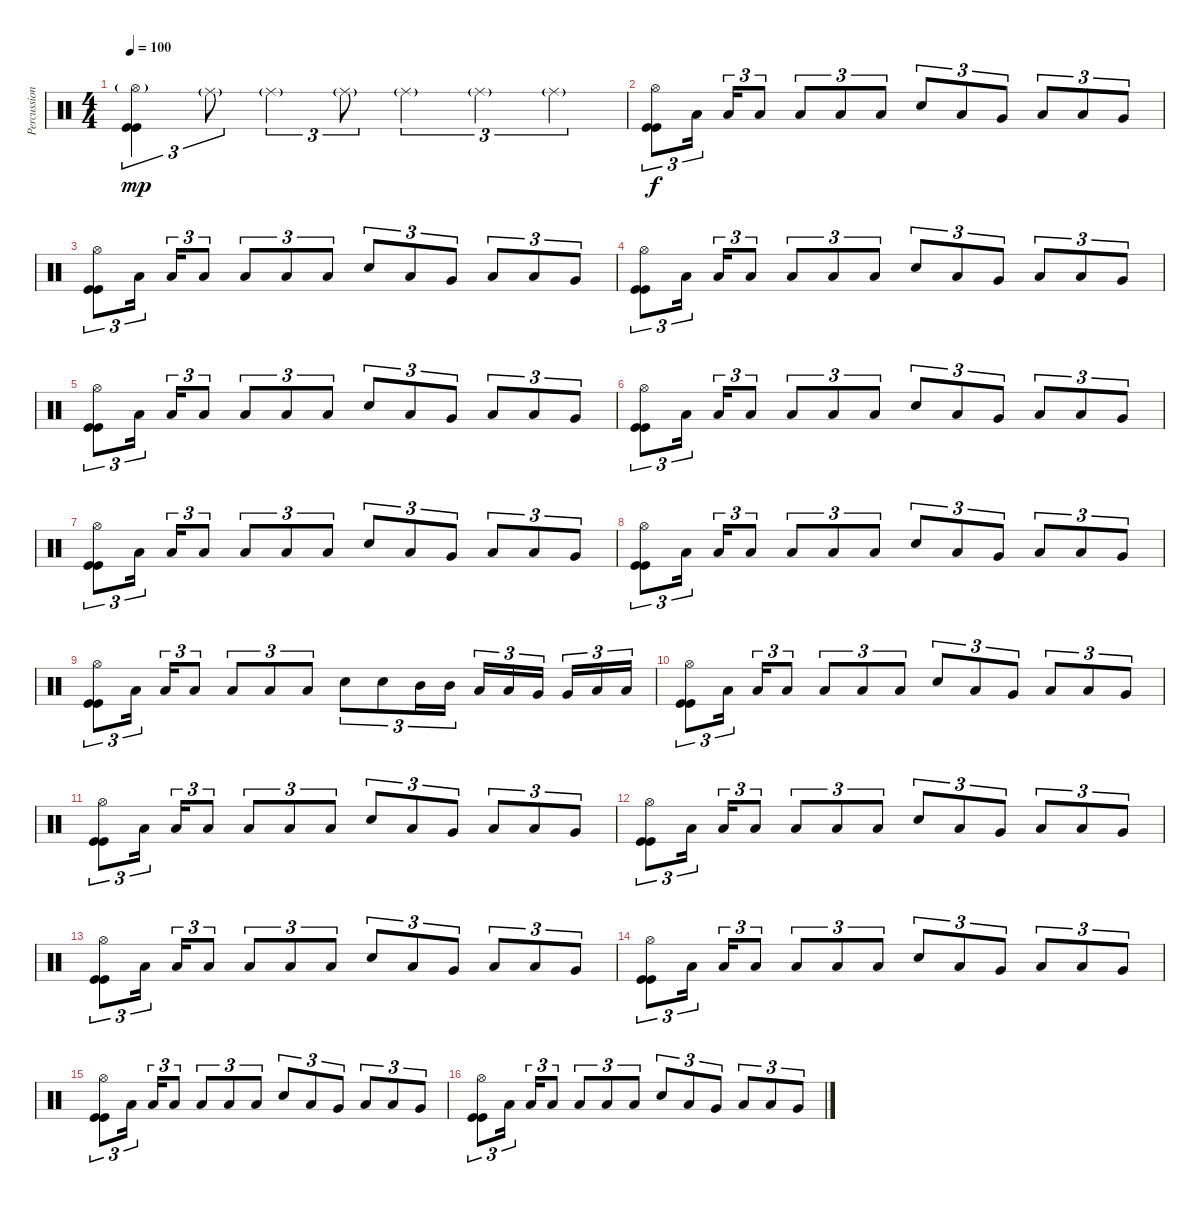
\track ("Percussions" "Percussion") {instrument percussion}
\staff {score}
\articulation defaults
\ts (4 4)
\tempo 100
\clef neutral
\ks c
("Hi-Hat (open)"{g} "Kick (hit)" "Kick (hit)").4{tu (3 2) dy mp} "Ride (middle)"{g}.8{tu (3 2)} "Ride (middle)"{g}.4{tu (3 2)} "Ride (middle)"{g}.8{tu (3 2)} "Ride (middle)"{g}.4{tu (3 2)} "Ride (middle)"{g}.4{tu (3 2)} "Ride (middle)"{g}.4{tu (3 2)} |
("Hi-Hat (open)" "Kick (hit)" "Kick (hit)").8{tu (3 2) dy f} "Low Tom (hit)".16{tu (3 2)} "Low Tom (hit)".16{tu (3 2)} "Low Tom (hit)".8{tu (3 2)} "Low Tom (hit)".8{tu (3 2)} "Low Tom (hit)".8{tu (3 2)} "Low Tom (hit)".8{tu (3 2)} "Electric Snare (hit)".8{tu (3 2)} "Low Tom (hit)".8{tu (3 2)} "Very Low Tom (hit)".8{tu (3 2)} "Low Tom (hit)".8{tu (3 2)} "Low Floor Tom (hit)".8{tu (3 2)} "Very Low Tom (hit)".8{tu (3 2)} |
("Hi-Hat (open)" "Kick (hit)" "Kick (hit)").8{tu (3 2)} "Low Tom (hit)".16{tu (3 2)} "Low Tom (hit)".16{tu (3 2)} "Low Tom (hit)".8{tu (3 2)} "Low Tom (hit)".8{tu (3 2)} "Low Tom (hit)".8{tu (3 2)} "Low Tom (hit)".8{tu (3 2)} "Electric Snare (hit)".8{tu (3 2)} "Low Tom (hit)".8{tu (3 2)} "Very Low Tom (hit)".8{tu (3 2)} "Low Tom (hit)".8{tu (3 2)} "Low Floor Tom (hit)".8{tu (3 2)} "Very Low Tom (hit)".8{tu (3 2)} |
("Hi-Hat (open)" "Kick (hit)" "Kick (hit)").8{tu (3 2)} "Low Tom (hit)".16{tu (3 2)} "Low Tom (hit)".16{tu (3 2)} "Low Tom (hit)".8{tu (3 2)} "Low Tom (hit)".8{tu (3 2)} "Low Tom (hit)".8{tu (3 2)} "Low Tom (hit)".8{tu (3 2)} "Electric Snare (hit)".8{tu (3 2)} "Low Tom (hit)".8{tu (3 2)} "Very Low Tom (hit)".8{tu (3 2)} "Low Tom (hit)".8{tu (3 2)} "Low Floor Tom (hit)".8{tu (3 2)} "Very Low Tom (hit)".8{tu (3 2)} |
("Hi-Hat (open)" "Kick (hit)" "Kick (hit)").8{tu (3 2)} "Low Tom (hit)".16{tu (3 2)} "Low Tom (hit)".16{tu (3 2)} "Low Tom (hit)".8{tu (3 2)} "Low Tom (hit)".8{tu (3 2)} "Low Tom (hit)".8{tu (3 2)} "Low Tom (hit)".8{tu (3 2)} "Electric Snare (hit)".8{tu (3 2)} "Low Tom (hit)".8{tu (3 2)} "Very Low Tom (hit)".8{tu (3 2)} "Low Tom (hit)".8{tu (3 2)} "Low Floor Tom (hit)".8{tu (3 2)} "Very Low Tom (hit)".8{tu (3 2)} |
("Hi-Hat (open)" "Kick (hit)" "Kick (hit)").8{tu (3 2)} "Low Tom (hit)".16{tu (3 2)} "Low Tom (hit)".16{tu (3 2)} "Low Tom (hit)".8{tu (3 2)} "Low Tom (hit)".8{tu (3 2)} "Low Tom (hit)".8{tu (3 2)} "Low Tom (hit)".8{tu (3 2)} "Electric Snare (hit)".8{tu (3 2)} "Low Tom (hit)".8{tu (3 2)} "Very Low Tom (hit)".8{tu (3 2)} "Low Tom (hit)".8{tu (3 2)} "Low Floor Tom (hit)".8{tu (3 2)} "Very Low Tom (hit)".8{tu (3 2)} |
("Hi-Hat (open)" "Kick (hit)" "Kick (hit)").8{tu (3 2)} "Low Tom (hit)".16{tu (3 2)} "Low Tom (hit)".16{tu (3 2)} "Low Tom (hit)".8{tu (3 2)} "Low Tom (hit)".8{tu (3 2)} "Low Tom (hit)".8{tu (3 2)} "Low Tom (hit)".8{tu (3 2)} "Electric Snare (hit)".8{tu (3 2)} "Low Tom (hit)".8{tu (3 2)} "Very Low Tom (hit)".8{tu (3 2)} "Low Tom (hit)".8{tu (3 2)} "Low Floor Tom (hit)".8{tu (3 2)} "Very Low Tom (hit)".8{tu (3 2)} |
("Hi-Hat (open)" "Kick (hit)" "Kick (hit)").8{tu (3 2)} "Low Tom (hit)".16{tu (3 2)} "Low Tom (hit)".16{tu (3 2)} "Low Tom (hit)".8{tu (3 2)} "Low Tom (hit)".8{tu (3 2)} "Low Tom (hit)".8{tu (3 2)} "Low Tom (hit)".8{tu (3 2)} "Electric Snare (hit)".8{tu (3 2)} "Low Tom (hit)".8{tu (3 2)} "Very Low Tom (hit)".8{tu (3 2)} "Low Tom (hit)".8{tu (3 2)} "Low Floor Tom (hit)".8{tu (3 2)} "Very Low Tom (hit)".8{tu (3 2)} |
("Hi-Hat (open)" "Kick (hit)" "Kick (hit)").8{tu (3 2)} "Low Tom (hit)".16{tu (3 2)} "Low Tom (hit)".16{tu (3 2)} "Low Tom (hit)".8{tu (3 2)} "Low Tom (hit)".8{tu (3 2)} "Low Tom (hit)".8{tu (3 2)} "Low Tom (hit)".8{tu (3 2)} "Electric Snare (hit)".8{tu (3 2)} "Electric Snare (hit)".8{tu (3 2)} "Mid Tom (hit)".16{tu (3 2)} "Mid Tom (hit)".16{tu (3 2)} "Low Tom (hit)".16{tu (3 2)} "Low Tom (hit)".16{tu (3 2)} "Very Low Tom (hit)".16{tu (3 2)} "Very Low Tom (hit)".16{tu (3 2)} "Low Floor Tom (hit)".16{tu (3 2)} "Low Floor Tom (hit)".16{tu (3 2)} |
("Hi-Hat (open)" "Kick (hit)" "Kick (hit)").8{tu (3 2)} "Low Tom (hit)".16{tu (3 2)} "Low Tom (hit)".16{tu (3 2)} "Low Tom (hit)".8{tu (3 2)} "Low Tom (hit)".8{tu (3 2)} "Low Tom (hit)".8{tu (3 2)} "Low Tom (hit)".8{tu (3 2)} "Electric Snare (hit)".8{tu (3 2)} "Low Tom (hit)".8{tu (3 2)} "Very Low Tom (hit)".8{tu (3 2)} "Low Tom (hit)".8{tu (3 2)} "Low Floor Tom (hit)".8{tu (3 2)} "Very Low Tom (hit)".8{tu (3 2)} |
("Hi-Hat (open)" "Kick (hit)" "Kick (hit)").8{tu (3 2)} "Low Tom (hit)".16{tu (3 2)} "Low Tom (hit)".16{tu (3 2)} "Low Tom (hit)".8{tu (3 2)} "Low Tom (hit)".8{tu (3 2)} "Low Tom (hit)".8{tu (3 2)} "Low Tom (hit)".8{tu (3 2)} "Electric Snare (hit)".8{tu (3 2)} "Low Tom (hit)".8{tu (3 2)} "Very Low Tom (hit)".8{tu (3 2)} "Low Tom (hit)".8{tu (3 2)} "Low Floor Tom (hit)".8{tu (3 2)} "Very Low Tom (hit)".8{tu (3 2)} |
("Hi-Hat (open)" "Kick (hit)" "Kick (hit)").8{tu (3 2)} "Low Tom (hit)".16{tu (3 2)} "Low Tom (hit)".16{tu (3 2)} "Low Tom (hit)".8{tu (3 2)} "Low Tom (hit)".8{tu (3 2)} "Low Tom (hit)".8{tu (3 2)} "Low Tom (hit)".8{tu (3 2)} "Electric Snare (hit)".8{tu (3 2)} "Low Tom (hit)".8{tu (3 2)} "Very Low Tom (hit)".8{tu (3 2)} "Low Tom (hit)".8{tu (3 2)} "Low Floor Tom (hit)".8{tu (3 2)} "Very Low Tom (hit)".8{tu (3 2)} |
("Hi-Hat (open)" "Kick (hit)" "Kick (hit)").8{tu (3 2)} "Low Tom (hit)".16{tu (3 2)} "Low Tom (hit)".16{tu (3 2)} "Low Tom (hit)".8{tu (3 2)} "Low Tom (hit)".8{tu (3 2)} "Low Tom (hit)".8{tu (3 2)} "Low Tom (hit)".8{tu (3 2)} "Electric Snare (hit)".8{tu (3 2)} "Low Tom (hit)".8{tu (3 2)} "Very Low Tom (hit)".8{tu (3 2)} "Low Tom (hit)".8{tu (3 2)} "Low Floor Tom (hit)".8{tu (3 2)} "Very Low Tom (hit)".8{tu (3 2)} |
("Hi-Hat (open)" "Kick (hit)" "Kick (hit)").8{tu (3 2)} "Low Tom (hit)".16{tu (3 2)} "Low Tom (hit)".16{tu (3 2)} "Low Tom (hit)".8{tu (3 2)} "Low Tom (hit)".8{tu (3 2)} "Low Tom (hit)".8{tu (3 2)} "Low Tom (hit)".8{tu (3 2)} "Electric Snare (hit)".8{tu (3 2)} "Low Tom (hit)".8{tu (3 2)} "Very Low Tom (hit)".8{tu (3 2)} "Low Tom (hit)".8{tu (3 2)} "Low Floor Tom (hit)".8{tu (3 2)} "Very Low Tom (hit)".8{tu (3 2)} |
("Hi-Hat (open)" "Kick (hit)" "Kick (hit)").8{tu (3 2)} "Low Tom (hit)".16{tu (3 2)} "Low Tom (hit)".16{tu (3 2)} "Low Tom (hit)".8{tu (3 2)} "Low Tom (hit)".8{tu (3 2)} "Low Tom (hit)".8{tu (3 2)} "Low Tom (hit)".8{tu (3 2)} "Electric Snare (hit)".8{tu (3 2)} "Low Tom (hit)".8{tu (3 2)} "Very Low Tom (hit)".8{tu (3 2)} "Low Tom (hit)".8{tu (3 2)} "Low Floor Tom (hit)".8{tu (3 2)} "Very Low Tom (hit)".8{tu (3 2)} |
("Hi-Hat (open)" "Kick (hit)" "Kick (hit)").8{tu (3 2)} "Low Tom (hit)".16{tu (3 2)} "Low Tom (hit)".16{tu (3 2)} "Low Tom (hit)".8{tu (3 2)} "Low Tom (hit)".8{tu (3 2)} "Low Tom (hit)".8{tu (3 2)} "Low Tom (hit)".8{tu (3 2)} "Electric Snare (hit)".8{tu (3 2)} "Low Tom (hit)".8{tu (3 2)} "Very Low Tom (hit)".8{tu (3 2)} "Low Tom (hit)".8{tu (3 2)} "Low Floor Tom (hit)".8{tu (3 2)} "Very Low Tom (hit)".8{tu (3 2)}
